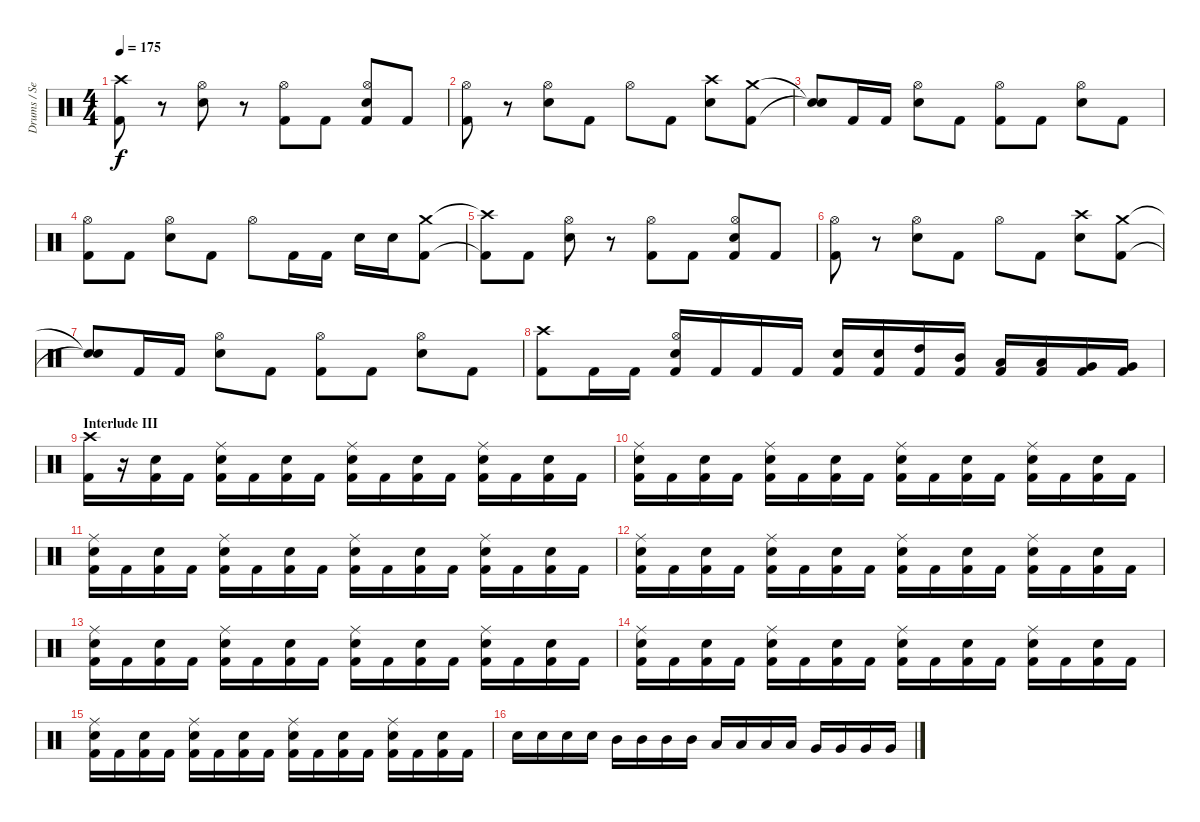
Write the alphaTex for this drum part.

\track ("Drums / Sean" "Drums / Se") {instrument percussion}
\staff {score}
\articulation defaults
\ts (4 4)
\tempo 175
\clef neutral
\ks c
("Crash high (hit)" "Kick (hit) 2").8{dy f} r.8 ("Hi-Hat (open)" "Electric Snare (hit)").8 r.8 ("Hi-Hat (open)" "Kick (hit) 2").8 "Kick (hit) 2".8 ("Hi-Hat (open)" "Electric Snare (hit)" "Kick (hit) 2").8 "Kick (hit) 2".8 |
("Hi-Hat (open)" "Kick (hit) 2").8 r.8 ("Hi-Hat (open)" "Electric Snare (hit)").8 "Kick (hit) 2".8 "Hi-Hat (open)".8 "Kick (hit) 2".8 ("Crash high (hit)" "Electric Snare (hit)").8 ("Crash medium (hit)" "Kick (hit) 2").8 |
("Snare (hit)"{t} "Snare (hit)"{t}).8 "Kick (hit) 2".16 "Kick (hit) 2".16 ("Hi-Hat (open)" "Electric Snare (hit)").8 "Kick (hit) 2".8 ("Hi-Hat (open)" "Kick (hit) 2").8 "Kick (hit) 2".8 ("Hi-Hat (open)" "Electric Snare (hit)").8 "Kick (hit) 2".8 |
("Hi-Hat (open)" "Kick (hit) 2").8 "Kick (hit) 2".8 ("Hi-Hat (open)" "Electric Snare (hit)").8 "Kick (hit) 2".8 "Hi-Hat (open)".8 "Kick (hit) 2".16 "Kick (hit) 2".16 "Electric Snare (hit)".16 "Electric Snare (hit)".16 ("Crash medium (hit)" "Kick (hit) 2").8 |
("Crash high (hit)"{t} "Kick (hit) 2"{t}).8 "Kick (hit) 2".8 ("Hi-Hat (open)" "Electric Snare (hit)").8 r.8 ("Hi-Hat (open)" "Kick (hit) 2").8 "Kick (hit) 2".8 ("Hi-Hat (open)" "Electric Snare (hit)" "Kick (hit) 2").8 "Kick (hit) 2".8 |
("Hi-Hat (open)" "Kick (hit) 2").8 r.8 ("Hi-Hat (open)" "Electric Snare (hit)").8 "Kick (hit) 2".8 "Hi-Hat (open)".8 "Kick (hit) 2".8 ("Crash high (hit)" "Electric Snare (hit)").8 ("Crash medium (hit)" "Kick (hit) 2").8 |
("Snare (hit)"{t} "Snare (hit)"{t}).8 "Kick (hit) 2".16 "Kick (hit) 2".16 ("Hi-Hat (open)" "Electric Snare (hit)").8 "Kick (hit) 2".8 ("Hi-Hat (open)" "Kick (hit) 2").8 "Kick (hit) 2".8 ("Hi-Hat (open)" "Electric Snare (hit)").8 "Kick (hit) 2".8 |
("Crash high (hit)" "Kick (hit) 2").8 "Kick (hit) 2".16 "Kick (hit) 2".16 ("Hi-Hat (open)" "Electric Snare (hit)" "Kick (hit) 2").16 "Kick (hit) 2".16 "Kick (hit) 2".16 "Kick (hit) 2".16 ("Electric Snare (hit)" "Kick (hit) 2").16 ("Electric Snare (hit)" "Kick (hit) 2").16 ("High Tom (hit)" "Kick (hit) 2").16 ("Mid Tom (hit)" "Kick (hit) 2").16 ("Low Tom (hit)" "Kick (hit) 2").16 ("Low Tom (hit)" "Kick (hit) 2").16 ("Very Low Tom (hit)" "Kick (hit) 2").16 ("Very Low Tom (hit)" "Kick (hit) 2").16 |
\section ("" "Interlude III")
("Crash high (hit)" "Kick (hit) 2").16 r.16 ("Electric Snare (hit)" "Kick (hit) 2").16 "Kick (hit) 2".16 ("Ride (middle)" "Electric Snare (hit)" "Kick (hit) 2").16 "Kick (hit) 2".16 ("Electric Snare (hit)" "Kick (hit) 2").16 "Kick (hit) 2".16 ("Ride (middle)" "Electric Snare (hit)" "Kick (hit) 2").16 "Kick (hit) 2".16 ("Electric Snare (hit)" "Kick (hit) 2").16 "Kick (hit) 2".16 ("Ride (middle)" "Electric Snare (hit)" "Kick (hit) 2").16 "Kick (hit) 2".16 ("Electric Snare (hit)" "Kick (hit) 2").16 "Kick (hit) 2".16 |
("Ride (middle)" "Electric Snare (hit)" "Kick (hit) 2").16 "Kick (hit) 2".16 ("Electric Snare (hit)" "Kick (hit) 2").16 "Kick (hit) 2".16 ("Ride (middle)" "Electric Snare (hit)" "Kick (hit) 2").16 "Kick (hit) 2".16 ("Electric Snare (hit)" "Kick (hit) 2").16 "Kick (hit) 2".16 ("Ride (middle)" "Electric Snare (hit)" "Kick (hit) 2").16 "Kick (hit) 2".16 ("Electric Snare (hit)" "Kick (hit) 2").16 "Kick (hit) 2".16 ("Ride (middle)" "Electric Snare (hit)" "Kick (hit) 2").16 "Kick (hit) 2".16 ("Electric Snare (hit)" "Kick (hit) 2").16 "Kick (hit) 2".16 |
("Ride (middle)" "Electric Snare (hit)" "Kick (hit) 2").16 "Kick (hit) 2".16 ("Electric Snare (hit)" "Kick (hit) 2").16 "Kick (hit) 2".16 ("Ride (middle)" "Electric Snare (hit)" "Kick (hit) 2").16 "Kick (hit) 2".16 ("Electric Snare (hit)" "Kick (hit) 2").16 "Kick (hit) 2".16 ("Ride (middle)" "Electric Snare (hit)" "Kick (hit) 2").16 "Kick (hit) 2".16 ("Electric Snare (hit)" "Kick (hit) 2").16 "Kick (hit) 2".16 ("Ride (middle)" "Electric Snare (hit)" "Kick (hit) 2").16 "Kick (hit) 2".16 ("Electric Snare (hit)" "Kick (hit) 2").16 "Kick (hit) 2".16 |
("Ride (middle)" "Electric Snare (hit)" "Kick (hit) 2").16 "Kick (hit) 2".16 ("Electric Snare (hit)" "Kick (hit) 2").16 "Kick (hit) 2".16 ("Ride (middle)" "Electric Snare (hit)" "Kick (hit) 2").16 "Kick (hit) 2".16 ("Electric Snare (hit)" "Kick (hit) 2").16 "Kick (hit) 2".16 ("Ride (middle)" "Electric Snare (hit)" "Kick (hit) 2").16 "Kick (hit) 2".16 ("Electric Snare (hit)" "Kick (hit) 2").16 "Kick (hit) 2".16 ("Ride (middle)" "Electric Snare (hit)" "Kick (hit) 2").16 "Kick (hit) 2".16 ("Electric Snare (hit)" "Kick (hit) 2").16 "Kick (hit) 2".16 |
("Ride (middle)" "Electric Snare (hit)" "Kick (hit) 2").16 "Kick (hit) 2".16 ("Electric Snare (hit)" "Kick (hit) 2").16 "Kick (hit) 2".16 ("Ride (middle)" "Electric Snare (hit)" "Kick (hit) 2").16 "Kick (hit) 2".16 ("Electric Snare (hit)" "Kick (hit) 2").16 "Kick (hit) 2".16 ("Ride (middle)" "Electric Snare (hit)" "Kick (hit) 2").16 "Kick (hit) 2".16 ("Electric Snare (hit)" "Kick (hit) 2").16 "Kick (hit) 2".16 ("Ride (middle)" "Electric Snare (hit)" "Kick (hit) 2").16 "Kick (hit) 2".16 ("Electric Snare (hit)" "Kick (hit) 2").16 "Kick (hit) 2".16 |
("Ride (middle)" "Electric Snare (hit)" "Kick (hit) 2").16 "Kick (hit) 2".16 ("Electric Snare (hit)" "Kick (hit) 2").16 "Kick (hit) 2".16 ("Ride (middle)" "Electric Snare (hit)" "Kick (hit) 2").16 "Kick (hit) 2".16 ("Electric Snare (hit)" "Kick (hit) 2").16 "Kick (hit) 2".16 ("Ride (middle)" "Electric Snare (hit)" "Kick (hit) 2").16 "Kick (hit) 2".16 ("Electric Snare (hit)" "Kick (hit) 2").16 "Kick (hit) 2".16 ("Ride (middle)" "Electric Snare (hit)" "Kick (hit) 2").16 "Kick (hit) 2".16 ("Electric Snare (hit)" "Kick (hit) 2").16 "Kick (hit) 2".16 |
("Ride (middle)" "Electric Snare (hit)" "Kick (hit) 2").16 "Kick (hit) 2".16 ("Electric Snare (hit)" "Kick (hit) 2").16 "Kick (hit) 2".16 ("Ride (middle)" "Electric Snare (hit)" "Kick (hit) 2").16 "Kick (hit) 2".16 ("Electric Snare (hit)" "Kick (hit) 2").16 "Kick (hit) 2".16 ("Ride (middle)" "Electric Snare (hit)" "Kick (hit) 2").16 "Kick (hit) 2".16 ("Electric Snare (hit)" "Kick (hit) 2").16 "Kick (hit) 2".16 ("Ride (middle)" "Electric Snare (hit)" "Kick (hit) 2").16 "Kick (hit) 2".16 ("Electric Snare (hit)" "Kick (hit) 2").16 "Kick (hit) 2".16 |
"Electric Snare (hit)".16 "Electric Snare (hit)".16 "Electric Snare (hit)".16 "Electric Snare (hit)".16 "Mid Tom (hit)".16 "Mid Tom (hit)".16 "Mid Tom (hit)".16 "Mid Tom (hit)".16 "Low Tom (hit)".16 "Low Tom (hit)".16 "Low Tom (hit)".16 "Low Tom (hit)".16 "Very Low Tom (hit)".16 "Very Low Tom (hit)".16 "Very Low Tom (hit)".16 "Very Low Tom (hit)".16
